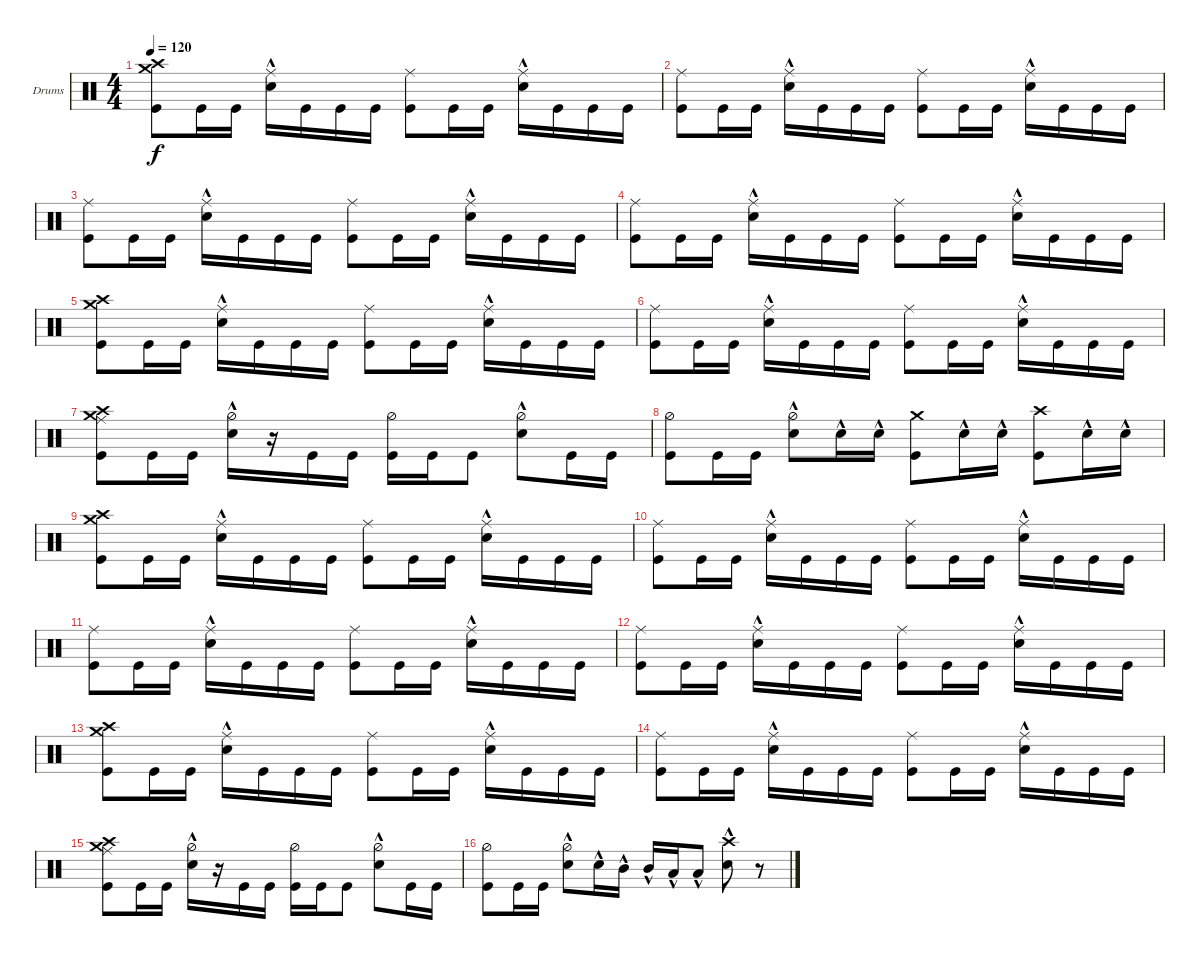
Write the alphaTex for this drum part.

\bracketExtendMode groupsimilarinstruments
\firstSystemTrackNameOrientation horizontal
\otherSystemsTrackNameOrientation horizontal
\track ("Drumkit" "Drums") {instrument percussion}
\staff {score}
\articulation defaults
\ts (4 4)
\tempo 120
\clef neutral
\scale
0.474178
\ks c
("Kick (hit)" "Crash medium (hit)" "Crash high (hit)").8{dy f} "Kick (hit)".16 "Kick (hit)".16 ("Snare (hit) 2"{hac} "Ride (middle)").16 "Kick (hit)".16 "Kick (hit)".16 "Kick (hit)".16 ("Kick (hit)" "Ride (middle)").8 "Kick (hit)".16 "Kick (hit)".16 ("Snare (hit) 2"{hac} "Ride (middle)").16 "Kick (hit)".16 "Kick (hit)".16 "Kick (hit)".16 |
\scale
0.262911 ("Kick (hit)" "Ride (middle)").8 "Kick (hit)".16 "Kick (hit)".16 ("Snare (hit) 2"{hac} "Ride (middle)").16 "Kick (hit)".16 "Kick (hit)".16 "Kick (hit)".16 ("Kick (hit)" "Ride (middle)").8 "Kick (hit)".16 "Kick (hit)".16 ("Snare (hit) 2"{hac} "Ride (middle)").16 "Kick (hit)".16 "Kick (hit)".16 "Kick (hit)".16 |
\scale
0.262911 ("Kick (hit)" "Ride (middle)").8 "Kick (hit)".16 "Kick (hit)".16 ("Snare (hit) 2"{hac} "Ride (middle)").16 "Kick (hit)".16 "Kick (hit)".16 "Kick (hit)".16 ("Kick (hit)" "Ride (middle)").8 "Kick (hit)".16 "Kick (hit)".16 ("Snare (hit) 2"{hac} "Ride (middle)").16 "Kick (hit)".16 "Kick (hit)".16 "Kick (hit)".16 |
\scale
0.333333 ("Kick (hit)" "Ride (middle)").8 "Kick (hit)".16 "Kick (hit)".16 ("Snare (hit) 2"{hac} "Ride (middle)").16 "Kick (hit)".16 "Kick (hit)".16 "Kick (hit)".16 ("Kick (hit)" "Ride (middle)").8 "Kick (hit)".16 "Kick (hit)".16 ("Snare (hit) 2"{hac} "Ride (middle)").16 "Kick (hit)".16 "Kick (hit)".16 "Kick (hit)".16 |
\scale
0.333333 ("Kick (hit)" "Crash medium (hit)" "Crash high (hit)").8 "Kick (hit)".16 "Kick (hit)".16 ("Snare (hit) 2"{hac} "Ride (middle)").16 "Kick (hit)".16 "Kick (hit)".16 "Kick (hit)".16 ("Kick (hit)" "Ride (middle)").8 "Kick (hit)".16 "Kick (hit)".16 ("Snare (hit) 2"{hac} "Ride (middle)").16 "Kick (hit)".16 "Kick (hit)".16 "Kick (hit)".16 |
\scale
0.333333 ("Kick (hit)" "Ride (middle)").8 "Kick (hit)".16 "Kick (hit)".16 ("Snare (hit) 2"{hac} "Ride (middle)").16 "Kick (hit)".16 "Kick (hit)".16 "Kick (hit)".16 ("Kick (hit)" "Ride (middle)").8 "Kick (hit)".16 "Kick (hit)".16 ("Snare (hit) 2"{hac} "Ride (middle)").16 "Kick (hit)".16 "Kick (hit)".16 "Kick (hit)".16 |
\scale
0.333333 ("Kick (hit)" "Ride (middle)" "Crash medium (hit)" "Crash high (hit)").8 "Kick (hit)".16 "Kick (hit)".16 ("Snare (hit) 2"{hac} "Hi-Hat (half)").16 r.16 "Kick (hit)".16 "Kick (hit)".16 ("Kick (hit)" "Hi-Hat (half)").16 "Kick (hit)".16 "Kick (hit)".8 ("Snare (hit) 2"{hac} "Hi-Hat (half)").8 "Kick (hit)".16 "Kick (hit)".16 |
\scale
0.333333 ("Kick (hit)" "Hi-Hat (half)").8 "Kick (hit)".16 "Kick (hit)".16 ("Snare (hit) 2"{hac} "Hi-Hat (half)").8 "Snare (hit) 2"{hac}.16 "Snare (hit) 2"{hac}.16 ("Kick (hit)" "Crash medium (hit)").8 "Snare (hit) 2"{hac}.16 "Snare (hit) 2"{hac}.16 ("Kick (hit)" "Crash high (hit)").8 "Snare (hit) 2"{hac}.16 "Snare (hit) 2"{hac}.16 |
\scale
0.333333 ("Kick (hit)" "Crash medium (hit)" "Crash high (hit)").8 "Kick (hit)".16 "Kick (hit)".16 ("Snare (hit) 2"{hac} "Ride (middle)").16 "Kick (hit)".16 "Kick (hit)".16 "Kick (hit)".16 ("Kick (hit)" "Ride (middle)").8 "Kick (hit)".16 "Kick (hit)".16 ("Snare (hit) 2"{hac} "Ride (middle)").16 "Kick (hit)".16 "Kick (hit)".16 "Kick (hit)".16 |
\scale
0.333333 ("Kick (hit)" "Ride (middle)").8 "Kick (hit)".16 "Kick (hit)".16 ("Snare (hit) 2"{hac} "Ride (middle)").16 "Kick (hit)".16 "Kick (hit)".16 "Kick (hit)".16 ("Kick (hit)" "Ride (middle)").8 "Kick (hit)".16 "Kick (hit)".16 ("Snare (hit) 2"{hac} "Ride (middle)").16 "Kick (hit)".16 "Kick (hit)".16 "Kick (hit)".16 |
\scale
0.333333 ("Kick (hit)" "Ride (middle)").8 "Kick (hit)".16 "Kick (hit)".16 ("Snare (hit) 2"{hac} "Ride (middle)").16 "Kick (hit)".16 "Kick (hit)".16 "Kick (hit)".16 ("Kick (hit)" "Ride (middle)").8 "Kick (hit)".16 "Kick (hit)".16 ("Snare (hit) 2"{hac} "Ride (middle)").16 "Kick (hit)".16 "Kick (hit)".16 "Kick (hit)".16 |
\scale
0.333333 ("Kick (hit)" "Ride (middle)").8 "Kick (hit)".16 "Kick (hit)".16 ("Snare (hit) 2"{hac} "Ride (middle)").16 "Kick (hit)".16 "Kick (hit)".16 "Kick (hit)".16 ("Kick (hit)" "Ride (middle)").8 "Kick (hit)".16 "Kick (hit)".16 ("Snare (hit) 2"{hac} "Ride (middle)").16 "Kick (hit)".16 "Kick (hit)".16 "Kick (hit)".16 |
\scale
0.333333 ("Kick (hit)" "Crash medium (hit)" "Crash high (hit)").8 "Kick (hit)".16 "Kick (hit)".16 ("Snare (hit) 2"{hac} "Ride (middle)").16 "Kick (hit)".16 "Kick (hit)".16 "Kick (hit)".16 ("Kick (hit)" "Ride (middle)").8 "Kick (hit)".16 "Kick (hit)".16 ("Snare (hit) 2"{hac} "Ride (middle)").16 "Kick (hit)".16 "Kick (hit)".16 "Kick (hit)".16 |
\scale
0.333333 ("Kick (hit)" "Ride (middle)").8 "Kick (hit)".16 "Kick (hit)".16 ("Snare (hit) 2"{hac} "Ride (middle)").16 "Kick (hit)".16 "Kick (hit)".16 "Kick (hit)".16 ("Kick (hit)" "Ride (middle)").8 "Kick (hit)".16 "Kick (hit)".16 ("Snare (hit) 2"{hac} "Ride (middle)").16 "Kick (hit)".16 "Kick (hit)".16 "Kick (hit)".16 |
\scale
0.333333 ("Kick (hit)" "Ride (middle)" "Crash medium (hit)" "Crash high (hit)").8 "Kick (hit)".16 "Kick (hit)".16 ("Snare (hit) 2"{hac} "Hi-Hat (half)").16 r.16 "Kick (hit)".16 "Kick (hit)".16 ("Kick (hit)" "Hi-Hat (half)").16 "Kick (hit)".16 "Kick (hit)".8 ("Snare (hit) 2"{hac} "Hi-Hat (half)").8 "Kick (hit)".16 "Kick (hit)".16 |
\scale
0.333333 ("Kick (hit)" "Hi-Hat (half)").8 "Kick (hit)".16 "Kick (hit)".16 ("Snare (hit) 2"{hac} "Hi-Hat (half)").8 "Snare (hit) 2"{hac}.16 "Mid Tom (hit)"{hac}.16 "Mid Tom (hit)"{hac}.16 "Low Tom (hit)"{hac}.16 "Low Tom (hit)"{hac}.8 ("Snare (hit) 2"{hac} "Crash high (hit)").8 r.8
